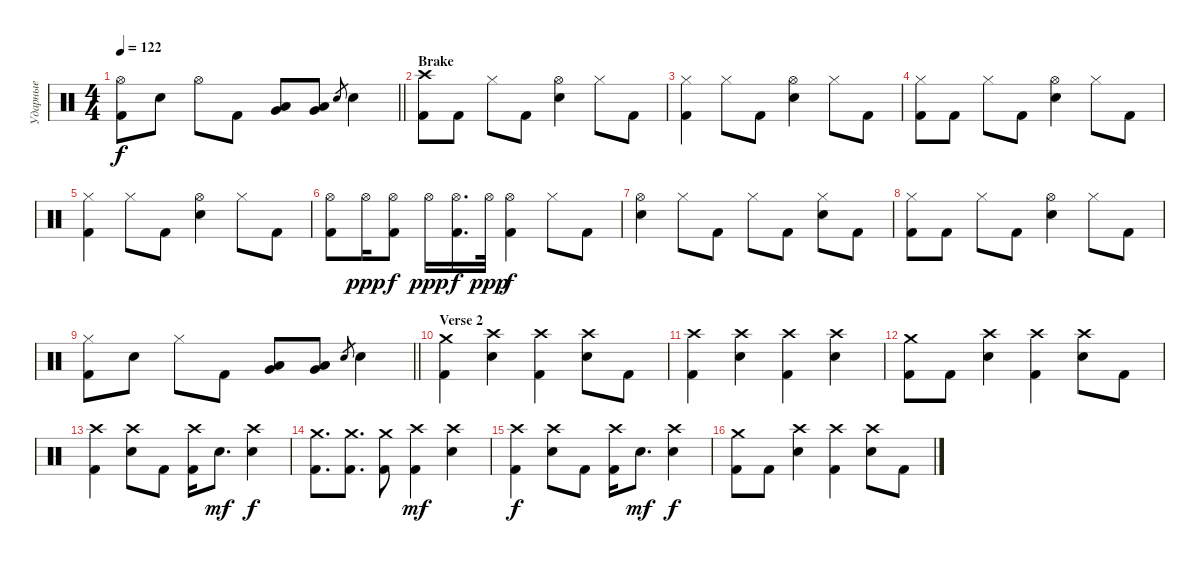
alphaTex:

\track ("Ударные" "Ударные") {instrument percussion}
\staff {score}
\articulation defaults
\ts (4 4)
\tempo 122
\clef neutral
\barLineRight lightlight
\ks c
("Hi-Hat (open)" "Kick (hit) 2").8{dy f} "Electric Snare (hit)".8 "Hi-Hat (open)".8 "Kick (hit) 2".8 ("Very Low Tom (hit)" "Low Tom (hit)").8 ("Very Low Tom (hit)" "Low Tom (hit)").8 "Electric Snare (hit)".8{gr} "Electric Snare (hit)".4 |
\section ("" "Brake")
("Kick (hit) 2" "Crash high (hit)").8 "Kick (hit) 2".8 "Hi-Hat (closed)".8 "Kick (hit) 2".8 ("Hi-Hat (open)" "Electric Snare (hit)").4 "Hi-Hat (closed)".8 "Kick (hit) 2".8 |
("Kick (hit) 2" "Hi-Hat (closed)").4 "Hi-Hat (closed)".8 "Kick (hit) 2".8 ("Hi-Hat (open)" "Electric Snare (hit)").4 "Hi-Hat (closed)".8 "Kick (hit) 2".8 |
("Kick (hit) 2" "Hi-Hat (closed)").8 "Kick (hit) 2".8 "Hi-Hat (closed)".8 "Kick (hit) 2".8 ("Hi-Hat (open)" "Electric Snare (hit)").4 "Hi-Hat (closed)".8 "Kick (hit) 2".8 |
("Kick (hit) 2" "Hi-Hat (closed)").4 "Hi-Hat (closed)".8 "Kick (hit) 2".8 ("Hi-Hat (open)" "Electric Snare (hit)").4 "Hi-Hat (closed)".8 "Kick (hit) 2".8 |
("Kick (hit) 2" "Hi-Hat (open)").8 "Hi-Hat (open)".16{dy ppp} ("Kick (hit) 2" "Hi-Hat (open)").8{dy f} "Hi-Hat (open)".16{dy ppp} ("Hi-Hat (open)" "Kick (hit) 2").16{d dy f} "Hi-Hat (open)".32{dy ppp} ("Hi-Hat (open)" "Kick (hit) 2").4{dy f} "Hi-Hat (closed)".8 "Kick (hit) 2".8 |
("Hi-Hat (open)" "Electric Snare (hit)").4 "Hi-Hat (closed)".8 "Kick (hit) 2".8 "Hi-Hat (closed)".8 "Kick (hit) 2".8 ("Hi-Hat (closed)" "Electric Snare (hit)").8 "Kick (hit) 2".8 |
("Kick (hit) 2" "Hi-Hat (closed)").8 "Kick (hit) 2".8 "Hi-Hat (closed)".8 "Kick (hit) 2".8 ("Hi-Hat (open)" "Electric Snare (hit)").4 "Hi-Hat (closed)".8 "Kick (hit) 2".8 |
\barLineRight lightlight
("Kick (hit) 2" "Hi-Hat (closed)").8 "Electric Snare (hit)".8 "Hi-Hat (closed)".8 "Kick (hit) 2".8 ("Very Low Tom (hit)" "Low Tom (hit)").8 ("Very Low Tom (hit)" "Low Tom (hit)").8 "Electric Snare (hit)".8{gr} "Electric Snare (hit)".4 |
\section ("" "Verse 2")
("Crash medium (hit)" "Kick (hit) 2").4 ("Electric Snare (hit)" "Crash high (hit)").4 ("Kick (hit) 2" "Crash high (hit)").4 ("Electric Snare (hit)" "Crash high (hit)").8 "Kick (hit) 2".8 |
("Crash high (hit)" "Kick (hit) 2").4 ("Electric Snare (hit)" "Crash high (hit)").4 ("Kick (hit) 2" "Crash high (hit)").4 ("Electric Snare (hit)" "Crash high (hit)").4 |
("Crash medium (hit)" "Kick (hit) 2").8 "Kick (hit) 2".8 ("Electric Snare (hit)" "Crash high (hit)").4 ("Kick (hit) 2" "Crash high (hit)").4 ("Electric Snare (hit)" "Crash high (hit)").8 "Kick (hit) 2".8 |
("Crash high (hit)" "Kick (hit) 2").4 ("Electric Snare (hit)" "Crash high (hit)").8 "Kick (hit) 2".8 ("Kick (hit) 2" "Crash high (hit)").16 "Electric Snare (hit)".8{d dy mf} ("Electric Snare (hit)" "Crash high (hit)").4{dy f} |
("Crash medium (hit)" "Kick (hit) 2").8{d} ("Crash medium (hit)" "Kick (hit) 2").8{d} ("Crash medium (hit)" "Kick (hit) 2").8 ("Kick (hit) 2" "Crash high (hit)").4{dy mf} ("Crash high (hit)" "Electric Snare (hit)").4 |
("Crash high (hit)" "Kick (hit) 2").4{dy f} ("Electric Snare (hit)" "Crash high (hit)").8 "Kick (hit) 2".8 ("Kick (hit) 2" "Crash high (hit)").16 "Electric Snare (hit)".8{d dy mf} ("Electric Snare (hit)" "Crash high (hit)").4{dy f} |
("Crash medium (hit)" "Kick (hit) 2").8 "Kick (hit) 2".8 ("Electric Snare (hit)" "Crash high (hit)").4 ("Kick (hit) 2" "Crash high (hit)").4 ("Electric Snare (hit)" "Crash high (hit)").8 "Kick (hit) 2".8
